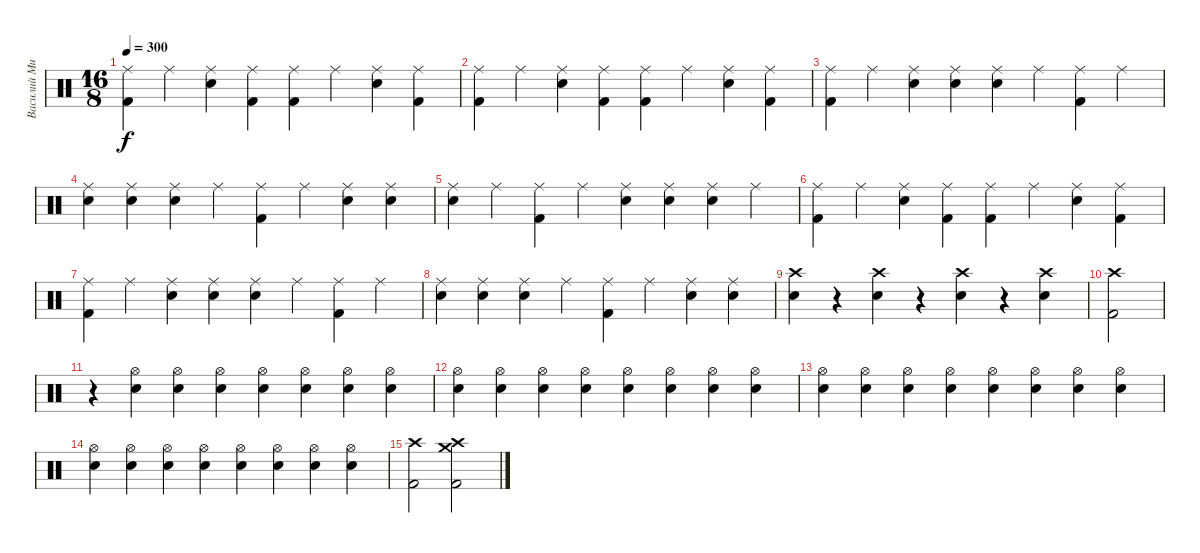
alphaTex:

\track ("Василий Михалыч-ударные" "Василий Ми") {instrument percussion}
\staff {score}
\articulation defaults
\ts (16 8)
\tempo 300
\clef neutral
\ks c
("Kick (hit) 2" "Ride (middle)").4{dy f} "Ride (middle)".4 ("Electric Snare (hit)" "Ride (middle)").4 ("Kick (hit) 2" "Ride (middle)").4 ("Kick (hit) 2" "Ride (middle)").4 "Ride (middle)".4 ("Electric Snare (hit)" "Ride (middle)").4 ("Kick (hit) 2" "Ride (middle)").4 |
("Kick (hit) 2" "Ride (middle)").4 "Ride (middle)".4 ("Electric Snare (hit)" "Ride (middle)").4 ("Kick (hit) 2" "Ride (middle)").4 ("Kick (hit) 2" "Ride (middle)").4 "Ride (middle)".4 ("Electric Snare (hit)" "Ride (middle)").4 ("Kick (hit) 2" "Ride (middle)").4 |
("Kick (hit) 2" "Ride (middle)").4 "Ride (middle)".4 ("Electric Snare (hit)" "Ride (middle)").4 ("Electric Snare (hit)" "Ride (middle)").4 ("Electric Snare (hit)" "Ride (middle)").4 "Ride (middle)".4 ("Kick (hit) 2" "Ride (middle)").4 "Ride (middle)".4 |
("Electric Snare (hit)" "Ride (middle)").4 ("Electric Snare (hit)" "Ride (middle)").4 ("Electric Snare (hit)" "Ride (middle)").4 "Ride (middle)".4 ("Kick (hit) 2" "Ride (middle)").4 "Ride (middle)".4 ("Electric Snare (hit)" "Ride (middle)").4 ("Electric Snare (hit)" "Ride (middle)").4 |
("Electric Snare (hit)" "Ride (middle)").4 "Ride (middle)".4 ("Kick (hit) 2" "Ride (middle)").4 "Ride (middle)".4 ("Electric Snare (hit)" "Ride (middle)").4 ("Electric Snare (hit)" "Ride (middle)").4 ("Electric Snare (hit)" "Ride (middle)").4 "Ride (middle)".4 |
("Kick (hit) 2" "Ride (middle)").4 "Ride (middle)".4 ("Electric Snare (hit)" "Ride (middle)").4 ("Kick (hit) 2" "Ride (middle)").4 ("Kick (hit) 2" "Ride (middle)").4 "Ride (middle)".4 ("Electric Snare (hit)" "Ride (middle)").4 ("Kick (hit) 2" "Ride (middle)").4 |
("Kick (hit) 2" "Ride (middle)").4 "Ride (middle)".4 ("Electric Snare (hit)" "Ride (middle)").4 ("Electric Snare (hit)" "Ride (middle)").4 ("Electric Snare (hit)" "Ride (middle)").4 "Ride (middle)".4 ("Kick (hit) 2" "Ride (middle)").4 "Ride (middle)".4 |
("Electric Snare (hit)" "Ride (middle)").4 ("Electric Snare (hit)" "Ride (middle)").4 ("Electric Snare (hit)" "Ride (middle)").4 "Ride (middle)".4 ("Kick (hit) 2" "Ride (middle)").4 "Ride (middle)".4 ("Electric Snare (hit)" "Ride (middle)").4 ("Electric Snare (hit)" "Ride (middle)").4 |
("Electric Snare (hit)" "Crash high (hit)").4 r.4 ("Electric Snare (hit)" "Crash high (hit)").4 r.4 ("Electric Snare (hit)" "Crash high (hit)").4 r.4 ("Electric Snare (hit)" "Crash high (hit)").4 |
("Kick (hit) 2" "Crash high (hit)").2 |
r.4 ("Electric Snare (hit)" "Hi-Hat (open)").4 ("Electric Snare (hit)" "Hi-Hat (open)").4 ("Electric Snare (hit)" "Hi-Hat (open)").4 ("Electric Snare (hit)" "Hi-Hat (open)").4 ("Electric Snare (hit)" "Hi-Hat (open)").4 ("Electric Snare (hit)" "Hi-Hat (open)").4 ("Electric Snare (hit)" "Hi-Hat (open)").4 |
("Electric Snare (hit)" "Hi-Hat (open)").4 ("Electric Snare (hit)" "Hi-Hat (open)").4 ("Electric Snare (hit)" "Hi-Hat (open)").4 ("Electric Snare (hit)" "Hi-Hat (open)").4 ("Electric Snare (hit)" "Hi-Hat (open)").4 ("Electric Snare (hit)" "Hi-Hat (open)").4 ("Electric Snare (hit)" "Hi-Hat (open)").4 ("Electric Snare (hit)" "Hi-Hat (open)").4 |
("Electric Snare (hit)" "Hi-Hat (open)").4 ("Electric Snare (hit)" "Hi-Hat (open)").4 ("Electric Snare (hit)" "Hi-Hat (open)").4 ("Electric Snare (hit)" "Hi-Hat (open)").4 ("Electric Snare (hit)" "Hi-Hat (open)").4 ("Electric Snare (hit)" "Hi-Hat (open)").4 ("Electric Snare (hit)" "Hi-Hat (open)").4 ("Electric Snare (hit)" "Hi-Hat (open)").4 |
("Electric Snare (hit)" "Hi-Hat (open)").4 ("Electric Snare (hit)" "Hi-Hat (open)").4 ("Electric Snare (hit)" "Hi-Hat (open)").4 ("Electric Snare (hit)" "Hi-Hat (open)").4 ("Electric Snare (hit)" "Hi-Hat (open)").4 ("Electric Snare (hit)" "Hi-Hat (open)").4 ("Electric Snare (hit)" "Hi-Hat (open)").4 ("Electric Snare (hit)" "Hi-Hat (open)").4 |
("Kick (hit) 2" "Crash high (hit)").2 ("Kick (hit) 2" "Crash medium (hit)" "Crash high (hit)").2
